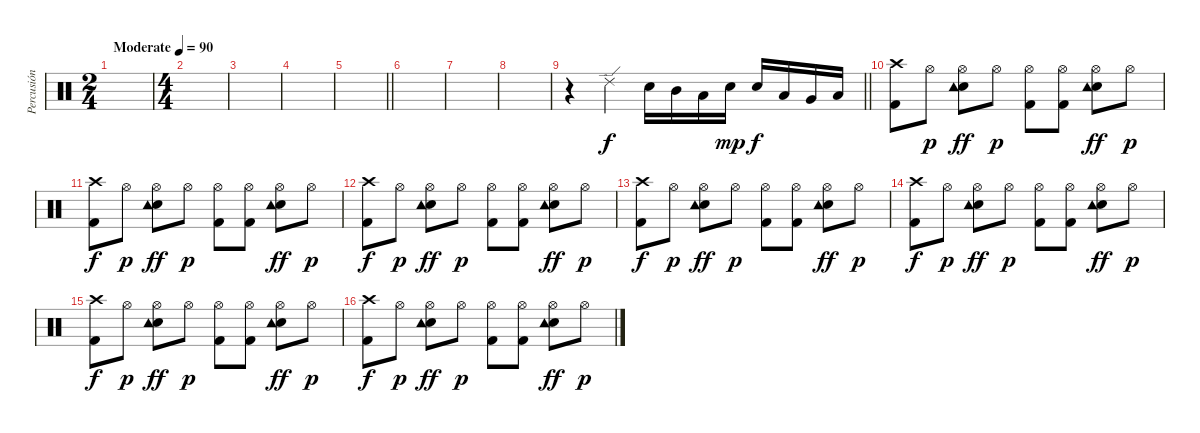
\track ("Percusión" "Percusión") {instrument percussion}
\staff {score}
\articulation defaults
\ts (2 4)
\tempo (90 "Moderate")
\clef neutral
\ks c
|
\ts (4 4)
|
|
|
\barLineRight lightlight
|
|
|
|
\barLineRight lightlight
r.4 "Ride (edge) 2".4 "Snare (hit) 2".16 "Mid Tom (hit)".16 "Low Tom (hit)".16 "Snare (hit) 2".16{dy mp} "Snare (hit) 2".16{dy f} "Low Tom (hit)".16 "Very Low Tom (hit)".16 "Low Floor Tom (hit)".16 |
("Crash high (hit)" "Kick (hit) 2").8 "Hi-Hat (open)".8{dy p} ("Hi-Hat (open)" "Snare (hit) 2" "Tambourine (hit)").8{dy ff} "Hi-Hat (open)".8{dy p} ("Hi-Hat (open)" "Kick (hit) 2").8 ("Hi-Hat (open)" "Kick (hit) 2").8 ("Hi-Hat (open)" "Snare (hit) 2" "Tambourine (hit)").8{dy ff} "Hi-Hat (open)".8{dy p} |
("Crash high (hit)" "Kick (hit) 2").8{dy f} "Hi-Hat (open)".8{dy p} ("Hi-Hat (open)" "Snare (hit) 2" "Tambourine (hit)").8{dy ff} "Hi-Hat (open)".8{dy p} ("Hi-Hat (open)" "Kick (hit) 2").8 ("Hi-Hat (open)" "Kick (hit) 2").8 ("Hi-Hat (open)" "Snare (hit) 2" "Tambourine (hit)").8{dy ff} "Hi-Hat (open)".8{dy p} |
("Crash high (hit)" "Kick (hit) 2").8{dy f} "Hi-Hat (open)".8{dy p} ("Hi-Hat (open)" "Snare (hit) 2" "Tambourine (hit)").8{dy ff} "Hi-Hat (open)".8{dy p} ("Hi-Hat (open)" "Kick (hit) 2").8 ("Hi-Hat (open)" "Kick (hit) 2").8 ("Hi-Hat (open)" "Snare (hit) 2" "Tambourine (hit)").8{dy ff} "Hi-Hat (open)".8{dy p} |
("Crash high (hit)" "Kick (hit) 2").8{dy f} "Hi-Hat (open)".8{dy p} ("Hi-Hat (open)" "Snare (hit) 2" "Tambourine (hit)").8{dy ff} "Hi-Hat (open)".8{dy p} ("Hi-Hat (open)" "Kick (hit) 2").8 ("Hi-Hat (open)" "Kick (hit) 2").8 ("Hi-Hat (open)" "Snare (hit) 2" "Tambourine (hit)").8{dy ff} "Hi-Hat (open)".8{dy p} |
("Crash high (hit)" "Kick (hit) 2").8{dy f} "Hi-Hat (open)".8{dy p} ("Hi-Hat (open)" "Snare (hit) 2" "Tambourine (hit)").8{dy ff} "Hi-Hat (open)".8{dy p} ("Hi-Hat (open)" "Kick (hit) 2").8 ("Hi-Hat (open)" "Kick (hit) 2").8 ("Hi-Hat (open)" "Snare (hit) 2" "Tambourine (hit)").8{dy ff} "Hi-Hat (open)".8{dy p} |
("Crash high (hit)" "Kick (hit) 2").8{dy f} "Hi-Hat (open)".8{dy p} ("Hi-Hat (open)" "Snare (hit) 2" "Tambourine (hit)").8{dy ff} "Hi-Hat (open)".8{dy p} ("Hi-Hat (open)" "Kick (hit) 2").8 ("Hi-Hat (open)" "Kick (hit) 2").8 ("Hi-Hat (open)" "Snare (hit) 2" "Tambourine (hit)").8{dy ff} "Hi-Hat (open)".8{dy p} |
("Crash high (hit)" "Kick (hit) 2").8{dy f} "Hi-Hat (open)".8{dy p} ("Hi-Hat (open)" "Snare (hit) 2" "Tambourine (hit)").8{dy ff} "Hi-Hat (open)".8{dy p} ("Hi-Hat (open)" "Kick (hit) 2").8 ("Hi-Hat (open)" "Kick (hit) 2").8 ("Hi-Hat (open)" "Snare (hit) 2" "Tambourine (hit)").8{dy ff} "Hi-Hat (open)".8{dy p}
